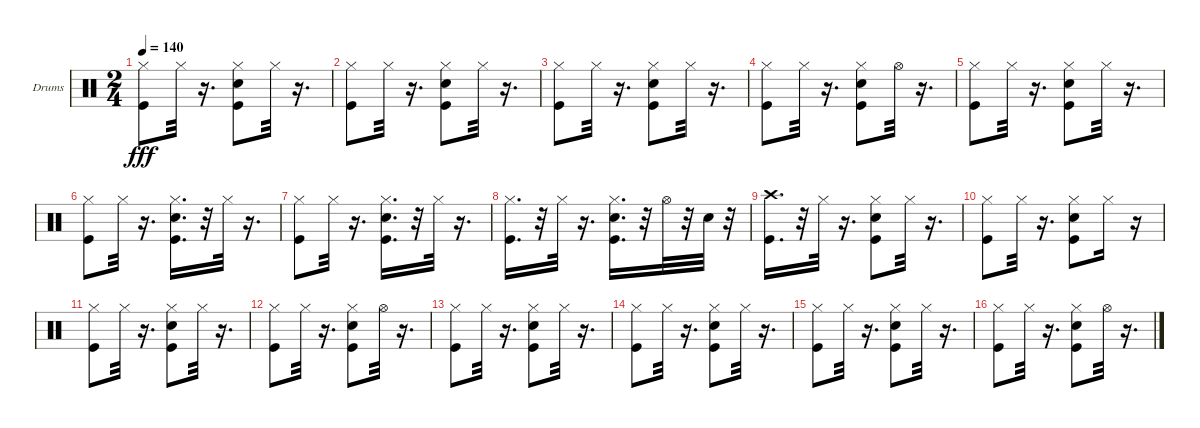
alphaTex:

\bracketExtendMode groupsimilarinstruments
\firstSystemTrackNameOrientation horizontal
\otherSystemsTrackNameOrientation horizontal
\track ("Ударные" "Drums") {instrument percussion}
\staff {score}
\articulation defaults
\ts (2 4)
\tempo 140
\clef neutral
\ks c
("Kick (hit)" "Hi-Hat (closed)").8{dy fff} "Hi-Hat (closed)".32 r.16{d} ("Snare (hit) 2" "Kick (hit)" "Hi-Hat (closed)").8 "Hi-Hat (closed)".32 r.16{d} |
("Kick (hit)" "Hi-Hat (closed)").8 "Hi-Hat (closed)".32 r.16{d} ("Snare (hit) 2" "Kick (hit)" "Hi-Hat (closed)").8 "Hi-Hat (closed)".32 r.16{d} |
("Kick (hit)" "Hi-Hat (closed)").8 "Hi-Hat (closed)".32 r.16{d} ("Snare (hit) 2" "Kick (hit)" "Hi-Hat (closed)").8 "Hi-Hat (closed)".32 r.16{d} |
("Kick (hit)" "Hi-Hat (closed)").8 "Hi-Hat (closed)".32 r.16{d} ("Snare (hit) 2" "Kick (hit)" "Hi-Hat (closed)").8 "Hi-Hat (open)".32 r.16{d} |
("Kick (hit)" "Hi-Hat (closed)").8 "Hi-Hat (closed)".32 r.16{d} ("Snare (hit) 2" "Kick (hit)" "Hi-Hat (closed)").8 "Hi-Hat (closed)".32 r.16{d} |
("Kick (hit)" "Hi-Hat (closed)").8 "Hi-Hat (closed)".32 r.16{d} ("Snare (hit) 2" "Kick (hit)" "Hi-Hat (closed)").16{d} r.32 "Hi-Hat (closed)".32 r.16{d} |
("Kick (hit)" "Hi-Hat (closed)").8 "Hi-Hat (closed)".32 r.16{d} ("Snare (hit) 2" "Kick (hit)" "Hi-Hat (closed)").16{d} r.32 "Hi-Hat (closed)".32 r.16{d} |
("Kick (hit)" "Hi-Hat (closed)").16{d} r.32 "Hi-Hat (closed)".32 r.16{d} ("Snare (hit) 2" "Kick (hit)" "Hi-Hat (closed)").16{d} r.32 "Hi-Hat (open)".32 r.32 "Snare (hit) 2".32 r.32 |
("Kick (hit)" "Crash high (hit)").16{d} r.32 "Hi-Hat (closed)".32 r.16{d} ("Snare (hit) 2" "Hi-Hat (closed)" "Kick (hit)").8 "Hi-Hat (closed)".32 r.16{d} |
("Kick (hit)" "Hi-Hat (closed)").8 "Hi-Hat (closed)".32 r.16{d} ("Snare (hit) 2" "Kick (hit)" "Hi-Hat (closed)").8 "Hi-Hat (closed)".16 r.16 |
("Kick (hit)" "Hi-Hat (closed)").8 "Hi-Hat (closed)".32 r.16{d} ("Snare (hit) 2" "Kick (hit)" "Hi-Hat (closed)").8 "Hi-Hat (closed)".32 r.16{d} |
("Kick (hit)" "Hi-Hat (closed)").8 "Hi-Hat (closed)".32 r.16{d} ("Hi-Hat (closed)" "Kick (hit)" "Snare (hit) 2").8 "Hi-Hat (open)".32 r.16{d} |
("Kick (hit)" "Hi-Hat (closed)").8 "Hi-Hat (closed)".32 r.16{d} ("Snare (hit) 2" "Kick (hit)" "Hi-Hat (closed)").8 "Hi-Hat (closed)".32 r.16{d} |
("Kick (hit)" "Hi-Hat (closed)").8 "Hi-Hat (closed)".32 r.16{d} ("Snare (hit) 2" "Kick (hit)" "Hi-Hat (closed)").8 "Hi-Hat (closed)".32 r.16{d} |
("Kick (hit)" "Hi-Hat (closed)").8 "Hi-Hat (closed)".32 r.16{d} ("Snare (hit) 2" "Kick (hit)" "Hi-Hat (closed)").8 "Hi-Hat (closed)".32 r.16{d} |
("Kick (hit)" "Hi-Hat (closed)").8 "Hi-Hat (closed)".32 r.16{d} ("Kick (hit)" "Snare (hit) 2" "Hi-Hat (closed)").8 "Hi-Hat (open)".32 r.16{d}
